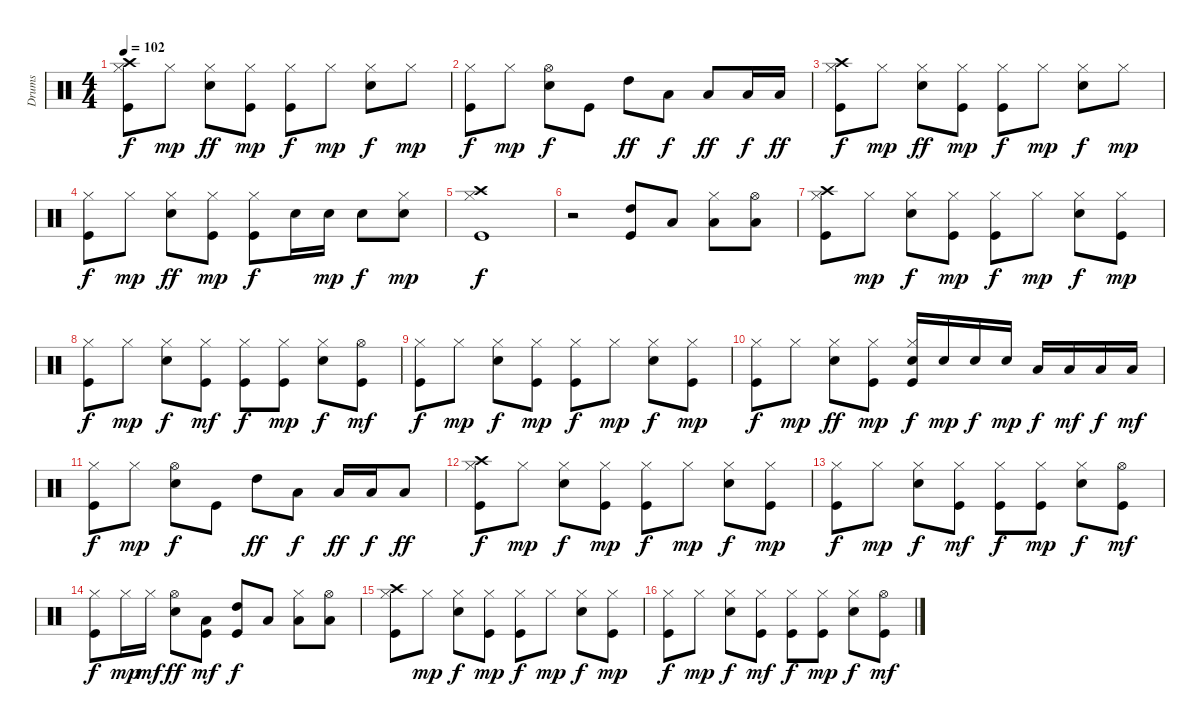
\track ("Drums" "Drums") {instrument percussion}
\staff {score}
\articulation defaults
\ts (4 4)
\tempo 102
\clef neutral
\ks c
("Kick (hit)" "Hi-Hat (closed)" "Crash high (hit)").8{dy f} "Hi-Hat (closed)".8{dy mp} ("Snare (hit) 2" "Hi-Hat (closed)").8{dy ff} ("Kick (hit)" "Hi-Hat (closed)").8{dy mp} ("Kick (hit)" "Hi-Hat (closed)").8{dy f} "Hi-Hat (closed)".8{dy mp} ("Snare (hit) 2" "Hi-Hat (closed)").8{dy f} "Hi-Hat (closed)".8{dy mp} |
("Kick (hit)" "Hi-Hat (closed)").8{dy f} "Hi-Hat (closed)".8{dy mp} ("Snare (hit) 2" "Hi-Hat (open)").8{dy f} "Kick (hit)".8 "High Tom (hit)".8{dy ff} "Low Tom (hit)".8{dy f} "Low Tom (hit)".8{dy ff} "Low Floor Tom (hit)".16{dy f} "Low Floor Tom (hit)".16{dy ff} |
("Kick (hit)" "Hi-Hat (closed)" "Crash high (hit)").8{dy f} "Hi-Hat (closed)".8{dy mp} ("Snare (hit) 2" "Hi-Hat (closed)").8{dy ff} ("Kick (hit)" "Hi-Hat (closed)").8{dy mp} ("Kick (hit)" "Hi-Hat (closed)").8{dy f} "Hi-Hat (closed)".8{dy mp} ("Snare (hit) 2" "Hi-Hat (closed)").8{dy f} "Hi-Hat (closed)".8{dy mp} |
("Kick (hit)" "Hi-Hat (closed)").8{dy f} "Hi-Hat (closed)".8{dy mp} ("Snare (hit) 2" "Hi-Hat (closed)").8{dy ff} ("Kick (hit)" "Hi-Hat (closed)").8{dy mp} ("Kick (hit)" "Hi-Hat (closed)").8{dy f} "Snare (hit) 2".16 "Snare (hit) 2".16{dy mp} "Snare (hit) 2".8{dy f} ("Snare (hit) 2" "Hi-Hat (closed)").8{dy mp} |
("Kick (hit)" "Hi-Hat (closed)" "Crash high (hit)").1{dy f} |
r.2 ("Kick (hit)" "High Tom (hit)").8 "Low Tom (hit)".8 ("Hi-Hat (closed)" "Low Tom (hit)").8 ("Hi-Hat (open)" "Low Floor Tom (hit)").8 |
("Kick (hit)" "Hi-Hat (closed)" "Crash high (hit)").8 "Hi-Hat (closed)".8{dy mp} ("Snare (hit) 2" "Hi-Hat (closed)").8{dy f} ("Kick (hit)" "Hi-Hat (closed)").8{dy mp} ("Kick (hit)" "Hi-Hat (closed)").8{dy f} "Hi-Hat (closed)".8{dy mp} ("Snare (hit) 2" "Hi-Hat (closed)").8{dy f} ("Kick (hit)" "Hi-Hat (closed)").8{dy mp} |
("Kick (hit)" "Hi-Hat (closed)").8{dy f} "Hi-Hat (closed)".8{dy mp} ("Snare (hit) 2" "Hi-Hat (closed)").8{dy f} ("Kick (hit)" "Hi-Hat (closed)").8{dy mf} ("Kick (hit)" "Hi-Hat (closed)").8{dy f} ("Kick (hit)" "Hi-Hat (closed)").8{dy mp} ("Snare (hit) 2" "Hi-Hat (closed)").8{dy f} ("Kick (hit)" "Hi-Hat (open)").8{dy mf} |
("Kick (hit)" "Hi-Hat (closed)").8{dy f} "Hi-Hat (closed)".8{dy mp} ("Snare (hit) 2" "Hi-Hat (closed)").8{dy f} ("Kick (hit)" "Hi-Hat (closed)").8{dy mp} ("Kick (hit)" "Hi-Hat (closed)").8{dy f} "Hi-Hat (closed)".8{dy mp} ("Snare (hit) 2" "Hi-Hat (closed)").8{dy f} ("Kick (hit)" "Hi-Hat (closed)").8{dy mp} |
("Kick (hit)" "Hi-Hat (closed)").8{dy f} "Hi-Hat (closed)".8{dy mp} ("Snare (hit) 2" "Hi-Hat (closed)").8{dy ff} ("Kick (hit)" "Hi-Hat (closed)").8{dy mp} ("Kick (hit)" "Snare (hit) 2" "Hi-Hat (closed)").16{dy f} "Snare (hit) 2".16{dy mp} "Snare (hit) 2".16{dy f} "Snare (hit) 2".16{dy mp} "Low Tom (hit)".16{dy f} "Low Tom (hit)".16{dy mf} "Low Tom (hit)".16{dy f} "Low Tom (hit)".16{dy mf} |
("Kick (hit)" "Hi-Hat (closed)").8{dy f} "Hi-Hat (closed)".8{dy mp} ("Snare (hit) 2" "Hi-Hat (open)").8{dy f} "Kick (hit)".8 "High Tom (hit)".8{dy ff} "Low Tom (hit)".8{dy f} "Low Tom (hit)".16{dy ff} "Low Floor Tom (hit)".16{dy f} "Low Floor Tom (hit)".8{dy ff} |
("Kick (hit)" "Hi-Hat (closed)" "Crash high (hit)").8{dy f} "Hi-Hat (closed)".8{dy mp} ("Snare (hit) 2" "Hi-Hat (closed)").8{dy f} ("Kick (hit)" "Hi-Hat (closed)").8{dy mp} ("Kick (hit)" "Hi-Hat (closed)").8{dy f} "Hi-Hat (closed)".8{dy mp} ("Snare (hit) 2" "Hi-Hat (closed)").8{dy f} ("Kick (hit)" "Hi-Hat (closed)").8{dy mp} |
("Kick (hit)" "Hi-Hat (closed)").8{dy f} "Hi-Hat (closed)".8{dy mp} ("Snare (hit) 2" "Hi-Hat (closed)").8{dy f} ("Kick (hit)" "Hi-Hat (closed)").8{dy mf} ("Kick (hit)" "Hi-Hat (closed)").8{dy f} ("Kick (hit)" "Hi-Hat (closed)").8{dy mp} ("Snare (hit) 2" "Hi-Hat (closed)").8{dy f} ("Kick (hit)" "Hi-Hat (open)").8{dy mf} |
("Kick (hit)" "Hi-Hat (closed)").8{dy f} "Hi-Hat (closed)".16{dy mp} "Hi-Hat (closed)".16{dy mf} ("Snare (hit) 2" "Hi-Hat (open)").8{dy ff} ("Kick (hit)" "Low Tom (hit)").8{dy mf} ("Kick (hit)" "High Tom (hit)").8{dy f} "Low Tom (hit)".8 ("Hi-Hat (closed)" "Low Tom (hit)").8 ("Hi-Hat (open)" "Low Floor Tom (hit)").8 |
("Kick (hit)" "Hi-Hat (closed)" "Crash high (hit)").8 "Hi-Hat (closed)".8{dy mp} ("Snare (hit) 2" "Hi-Hat (closed)").8{dy f} ("Kick (hit)" "Hi-Hat (closed)").8{dy mp} ("Kick (hit)" "Hi-Hat (closed)").8{dy f} "Hi-Hat (closed)".8{dy mp} ("Snare (hit) 2" "Hi-Hat (closed)").8{dy f} ("Kick (hit)" "Hi-Hat (closed)").8{dy mp} |
("Kick (hit)" "Hi-Hat (closed)").8{dy f} "Hi-Hat (closed)".8{dy mp} ("Snare (hit) 2" "Hi-Hat (closed)").8{dy f} ("Kick (hit)" "Hi-Hat (closed)").8{dy mf} ("Kick (hit)" "Hi-Hat (closed)").8{dy f} ("Kick (hit)" "Hi-Hat (closed)").8{dy mp} ("Snare (hit) 2" "Hi-Hat (closed)").8{dy f} ("Kick (hit)" "Hi-Hat (open)").8{dy mf}
